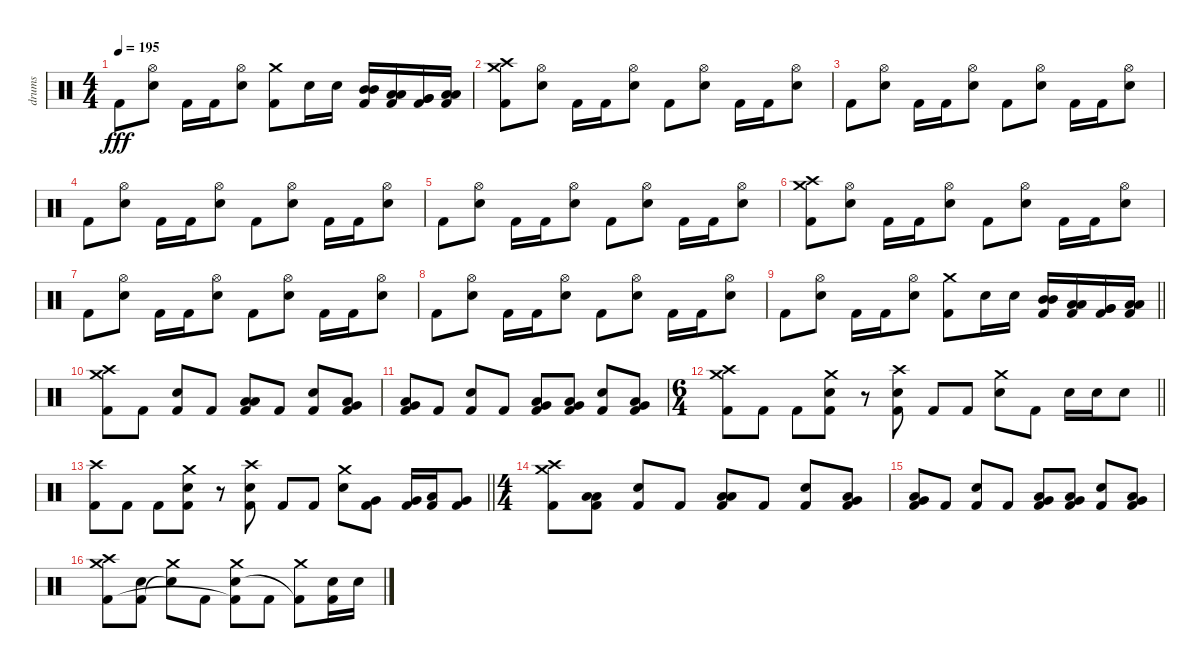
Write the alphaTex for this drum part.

\track ("drums" "drums") {instrument percussion}
\staff {score}
\articulation defaults
\ts (4 4)
\tempo 195
\clef neutral
\ks c "Kick (hit) 2".8{dy fff}
("Hi-Hat (open)" "Electric Snare (hit)").8 "Kick (hit) 2".16 "Kick (hit) 2".16 ("Hi-Hat (open)" "Electric Snare (hit)").8 ("Crash medium (hit)" "Kick (hit) 2").8 "Electric Snare (hit)".16 "Electric Snare (hit)".16 ("Mid Tom (hit)" "Mid Tom (hit)" "Kick (hit) 2").16 ("Low Tom (hit)" "Low Tom (hit)" "Kick (hit) 2").16 ("Very Low Tom (hit)" "Very Low Tom (hit)" "Kick (hit) 2").16 ("Low Floor Tom (hit)" "Low Floor Tom (hit)" "Kick (hit) 2").16 |
("Crash high (hit)" "Crash medium (hit)" "Kick (hit) 2").8 ("Hi-Hat (open)" "Electric Snare (hit)").8 "Kick (hit) 2".16 "Kick (hit) 2".16 ("Hi-Hat (open)" "Electric Snare (hit)").8 "Kick (hit) 2".8 ("Hi-Hat (open)" "Electric Snare (hit)").8 "Kick (hit) 2".16 "Kick (hit) 2".16 ("Hi-Hat (open)" "Electric Snare (hit)").8 |
"Kick (hit) 2".8 ("Hi-Hat (open)" "Electric Snare (hit)").8 "Kick (hit) 2".16 "Kick (hit) 2".16 ("Hi-Hat (open)" "Electric Snare (hit)").8 "Kick (hit) 2".8 ("Hi-Hat (open)" "Electric Snare (hit)").8 "Kick (hit) 2".16 "Kick (hit) 2".16 ("Hi-Hat (open)" "Electric Snare (hit)").8 |
"Kick (hit) 2".8 ("Hi-Hat (open)" "Electric Snare (hit)").8 "Kick (hit) 2".16 "Kick (hit) 2".16 ("Hi-Hat (open)" "Electric Snare (hit)").8 "Kick (hit) 2".8 ("Hi-Hat (open)" "Electric Snare (hit)").8 "Kick (hit) 2".16 "Kick (hit) 2".16 ("Hi-Hat (open)" "Electric Snare (hit)").8 |
"Kick (hit) 2".8 ("Hi-Hat (open)" "Electric Snare (hit)").8 "Kick (hit) 2".16 "Kick (hit) 2".16 ("Hi-Hat (open)" "Electric Snare (hit)").8 "Kick (hit) 2".8 ("Hi-Hat (open)" "Electric Snare (hit)").8 "Kick (hit) 2".16 "Kick (hit) 2".16 ("Hi-Hat (open)" "Electric Snare (hit)").8 |
("Crash high (hit)" "Crash medium (hit)" "Kick (hit) 2").8 ("Hi-Hat (open)" "Electric Snare (hit)").8 "Kick (hit) 2".16 "Kick (hit) 2".16 ("Hi-Hat (open)" "Electric Snare (hit)").8 "Kick (hit) 2".8 ("Hi-Hat (open)" "Electric Snare (hit)").8 "Kick (hit) 2".16 "Kick (hit) 2".16 ("Hi-Hat (open)" "Electric Snare (hit)").8 |
"Kick (hit) 2".8 ("Hi-Hat (open)" "Electric Snare (hit)").8 "Kick (hit) 2".16 "Kick (hit) 2".16 ("Hi-Hat (open)" "Electric Snare (hit)").8 "Kick (hit) 2".8 ("Hi-Hat (open)" "Electric Snare (hit)").8 "Kick (hit) 2".16 "Kick (hit) 2".16 ("Hi-Hat (open)" "Electric Snare (hit)").8 |
"Kick (hit) 2".8 ("Hi-Hat (open)" "Electric Snare (hit)").8 "Kick (hit) 2".16 "Kick (hit) 2".16 ("Hi-Hat (open)" "Electric Snare (hit)").8 "Kick (hit) 2".8 ("Hi-Hat (open)" "Electric Snare (hit)").8 "Kick (hit) 2".16 "Kick (hit) 2".16 ("Hi-Hat (open)" "Electric Snare (hit)").8 |
\barLineRight lightlight "Kick (hit) 2".8
("Hi-Hat (open)" "Electric Snare (hit)").8 "Kick (hit) 2".16 "Kick (hit) 2".16 ("Hi-Hat (open)" "Electric Snare (hit)").8 ("Crash medium (hit)" "Kick (hit) 2").8 "Electric Snare (hit)".16 "Electric Snare (hit)".16 ("Mid Tom (hit)" "Mid Tom (hit)" "Kick (hit) 2").16 ("Low Tom (hit)" "Low Tom (hit)" "Kick (hit) 2").16 ("Very Low Tom (hit)" "Very Low Tom (hit)" "Kick (hit) 2").16 ("Low Floor Tom (hit)" "Low Floor Tom (hit)" "Kick (hit) 2").16 |
\section ("" "")
("Crash high (hit)" "Crash medium (hit)" "Kick (hit) 2").8 "Kick (hit) 2".8 ("Electric Snare (hit)" "Kick (hit) 2").8 "Kick (hit) 2".8 ("Low Floor Tom (hit)" "Low Tom (hit)" "Kick (hit) 2").8 "Kick (hit) 2".8 ("Electric Snare (hit)" "Kick (hit) 2").8 ("Very Low Tom (hit)" "Low Floor Tom (hit)" "Kick (hit) 2").8 |
("Low Tom (hit)" "Very Low Tom (hit)" "Kick (hit) 2").8 "Kick (hit) 2".8 ("Electric Snare (hit)" "Kick (hit) 2").8 "Kick (hit) 2".8 ("Very Low Tom (hit)" "Low Floor Tom (hit)" "Kick (hit) 2").8 ("Very Low Tom (hit)" "Low Tom (hit)" "Kick (hit) 2").8 ("Electric Snare (hit)" "Kick (hit) 2").8 ("Low Floor Tom (hit)" "Very Low Tom (hit)" "Kick (hit) 2").8 |
\ts (6 4)
\barLineRight lightlight
("Crash high (hit)" "Crash medium (hit)" "Kick (hit) 2").8 "Kick (hit) 2".8 "Kick (hit) 2".8 ("Crash medium (hit)" "Electric Snare (hit)" "Kick (hit) 2").8 r.8 ("Crash high (hit)" "Electric Snare (hit)" "Kick (hit) 2").8 "Kick (hit) 2".8 "Kick (hit) 2".8 ("Crash medium (hit)" "Electric Snare (hit)").8 "Kick (hit) 2".8 "Electric Snare (hit)".16 "Electric Snare (hit)".16 "Electric Snare (hit)".8 |
\barLineRight lightlight
("Crash high (hit)" "Kick (hit) 2").8 "Kick (hit) 2".8 "Kick (hit) 2".8 ("Crash medium (hit)" "Electric Snare (hit)" "Kick (hit) 2").8 r.8 ("Crash high (hit)" "Electric Snare (hit)" "Kick (hit) 2").8 "Kick (hit) 2".8 "Kick (hit) 2".8 ("Crash medium (hit)" "Electric Snare (hit)").8 ("Very Low Tom (hit)" "Kick (hit) 2").8 ("Very Low Tom (hit)" "Kick (hit) 2").16 ("Low Floor Tom (hit)" "Kick (hit) 2").16 ("Very Low Tom (hit)" "Kick (hit) 2").8 |
\ts (4 4)
("Crash high (hit)" "Crash medium (hit)" "Kick (hit) 2").8 ("Low Tom (hit)" "Low Floor Tom (hit)" "Kick (hit) 2").8 ("Electric Snare (hit)" "Kick (hit) 2").8 "Kick (hit) 2".8 ("Low Floor Tom (hit)" "Low Tom (hit)" "Kick (hit) 2").8 "Kick (hit) 2".8 ("Electric Snare (hit)" "Kick (hit) 2").8 ("Very Low Tom (hit)" "Low Floor Tom (hit)" "Kick (hit) 2").8 |
("Low Tom (hit)" "Very Low Tom (hit)" "Kick (hit) 2").8 "Kick (hit) 2".8 ("Electric Snare (hit)" "Kick (hit) 2").8 "Kick (hit) 2".8 ("Very Low Tom (hit)" "Low Floor Tom (hit)" "Kick (hit) 2").8 ("Very Low Tom (hit)" "Low Tom (hit)" "Kick (hit) 2").8 ("Electric Snare (hit)" "Kick (hit) 2").8 ("Low Floor Tom (hit)" "Very Low Tom (hit)" "Kick (hit) 2").8 |
("Crash medium (hit)" "Crash high (hit)" "Kick (hit) 2").8 ("Electric Snare (hit)" "Kick (hit) 2").8 ("Crash medium (hit)" "Snare (hit)"{t}).8 "Kick (hit) 2".8 ("Crash medium (hit)" "Electric Snare (hit)" "Kick (hit) 2"{t}).8 "Kick (hit) 2".8 ("Crash medium (hit)" "Kick (hit) 2"{t}).8 ("Electric Snare (hit)" "Kick (hit) 2").16 "Electric Snare (hit)".16
